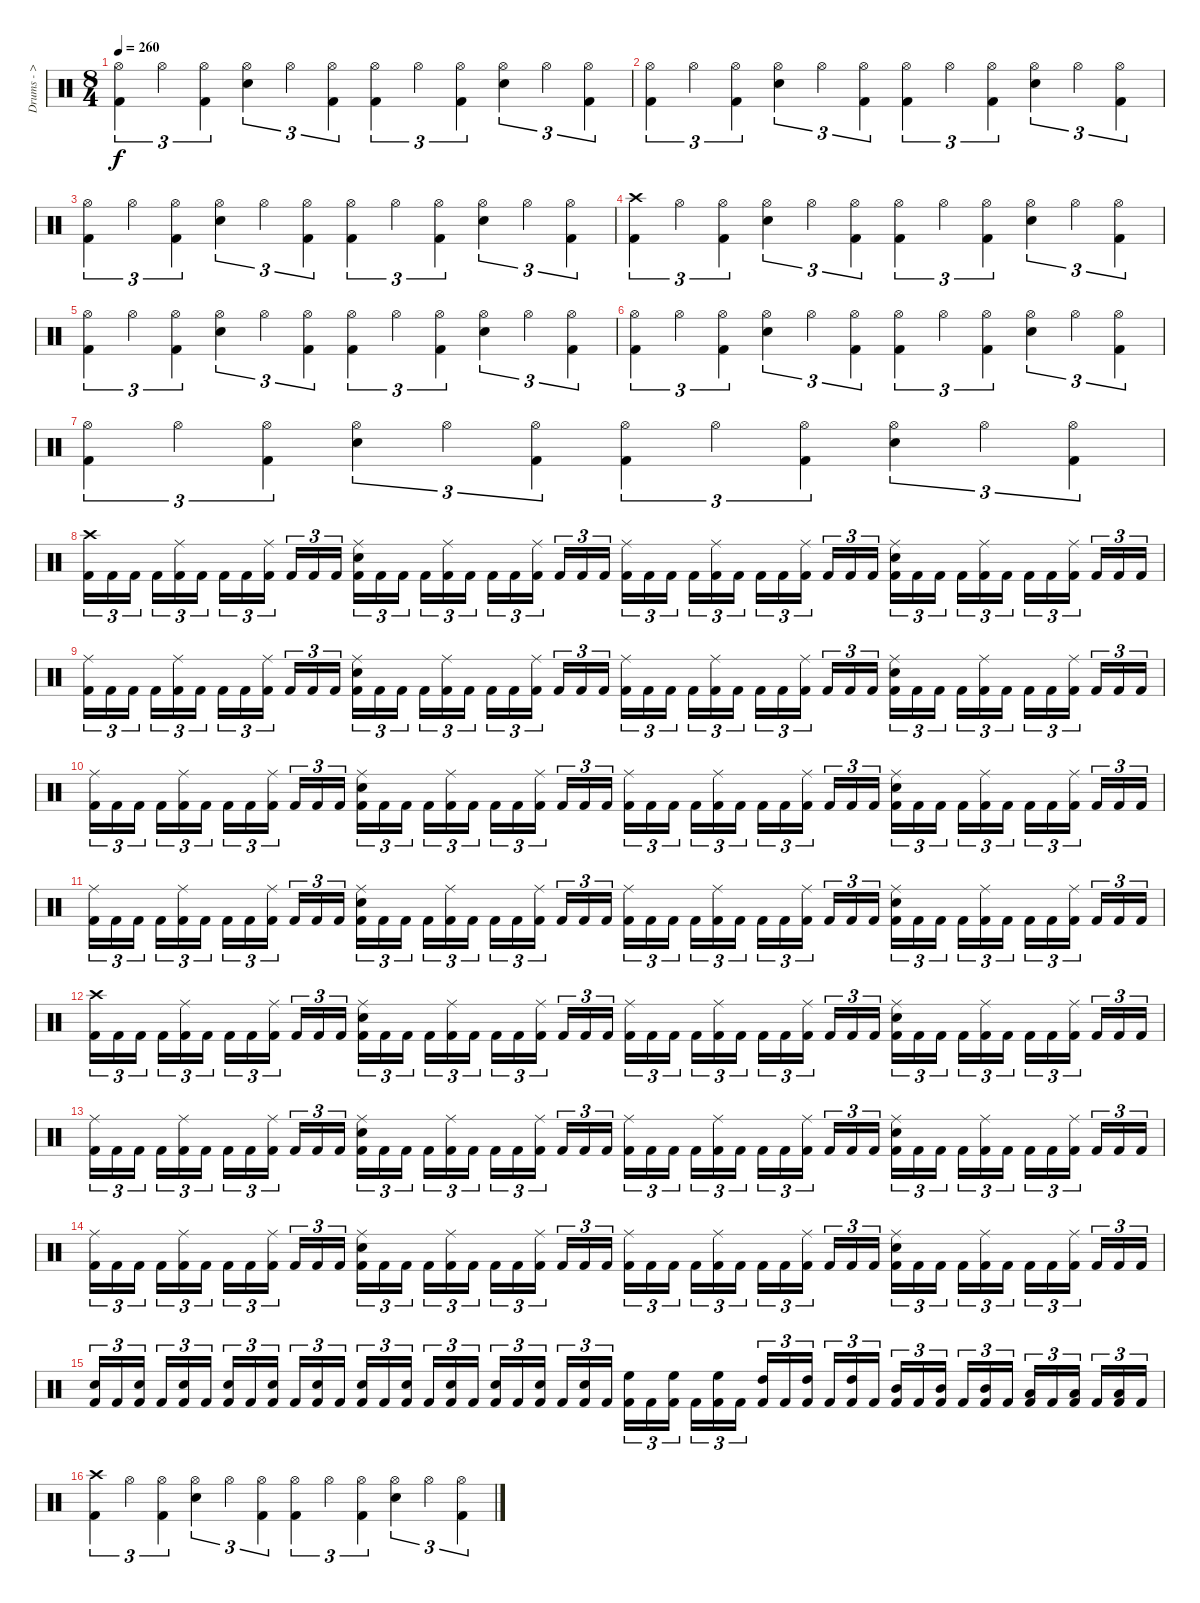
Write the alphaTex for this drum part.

\track ("Drums - > Nicholas" "Drums - > ") {instrument percussion}
\staff {score}
\articulation defaults
\ts (8 4)
\tempo 260
\clef neutral
\ks c
("Kick (hit) 2" "Hi-Hat (open)").4{tu (3 2) dy f} "Hi-Hat (open)".4{tu (3 2)} ("Kick (hit) 2" "Hi-Hat (open)").4{tu (3 2)} ("Snare (hit) 2" "Hi-Hat (open)").4{tu (3 2)} "Hi-Hat (open)".4{tu (3 2)} ("Kick (hit) 2" "Hi-Hat (open)").4{tu (3 2)} ("Kick (hit) 2" "Hi-Hat (open)").4{tu (3 2)} "Hi-Hat (open)".4{tu (3 2)} ("Kick (hit) 2" "Hi-Hat (open)").4{tu (3 2)} ("Snare (hit) 2" "Hi-Hat (open)").4{tu (3 2)} "Hi-Hat (open)".4{tu (3 2)} ("Kick (hit) 2" "Hi-Hat (open)").4{tu (3 2)} |
("Kick (hit) 2" "Hi-Hat (open)").4{tu (3 2)} "Hi-Hat (open)".4{tu (3 2)} ("Kick (hit) 2" "Hi-Hat (open)").4{tu (3 2)} ("Snare (hit) 2" "Hi-Hat (open)").4{tu (3 2)} "Hi-Hat (open)".4{tu (3 2)} ("Kick (hit) 2" "Hi-Hat (open)").4{tu (3 2)} ("Kick (hit) 2" "Hi-Hat (open)").4{tu (3 2)} "Hi-Hat (open)".4{tu (3 2)} ("Kick (hit) 2" "Hi-Hat (open)").4{tu (3 2)} ("Snare (hit) 2" "Hi-Hat (open)").4{tu (3 2)} "Hi-Hat (open)".4{tu (3 2)} ("Kick (hit) 2" "Hi-Hat (open)").4{tu (3 2)} |
("Kick (hit) 2" "Hi-Hat (open)").4{tu (3 2)} "Hi-Hat (open)".4{tu (3 2)} ("Kick (hit) 2" "Hi-Hat (open)").4{tu (3 2)} ("Snare (hit) 2" "Hi-Hat (open)").4{tu (3 2)} "Hi-Hat (open)".4{tu (3 2)} ("Kick (hit) 2" "Hi-Hat (open)").4{tu (3 2)} ("Kick (hit) 2" "Hi-Hat (open)").4{tu (3 2)} "Hi-Hat (open)".4{tu (3 2)} ("Kick (hit) 2" "Hi-Hat (open)").4{tu (3 2)} ("Snare (hit) 2" "Hi-Hat (open)").4{tu (3 2)} "Hi-Hat (open)".4{tu (3 2)} ("Kick (hit) 2" "Hi-Hat (open)").4{tu (3 2)} |
("Kick (hit) 2" "Crash high (hit)").4{tu (3 2)} "Hi-Hat (open)".4{tu (3 2)} ("Kick (hit) 2" "Hi-Hat (open)").4{tu (3 2)} ("Snare (hit) 2" "Hi-Hat (open)").4{tu (3 2)} "Hi-Hat (open)".4{tu (3 2)} ("Kick (hit) 2" "Hi-Hat (open)").4{tu (3 2)} ("Kick (hit) 2" "Hi-Hat (open)").4{tu (3 2)} "Hi-Hat (open)".4{tu (3 2)} ("Kick (hit) 2" "Hi-Hat (open)").4{tu (3 2)} ("Snare (hit) 2" "Hi-Hat (open)").4{tu (3 2)} "Hi-Hat (open)".4{tu (3 2)} ("Kick (hit) 2" "Hi-Hat (open)").4{tu (3 2)} |
("Kick (hit) 2" "Hi-Hat (open)").4{tu (3 2)} "Hi-Hat (open)".4{tu (3 2)} ("Kick (hit) 2" "Hi-Hat (open)").4{tu (3 2)} ("Snare (hit) 2" "Hi-Hat (open)").4{tu (3 2)} "Hi-Hat (open)".4{tu (3 2)} ("Kick (hit) 2" "Hi-Hat (open)").4{tu (3 2)} ("Kick (hit) 2" "Hi-Hat (open)").4{tu (3 2)} "Hi-Hat (open)".4{tu (3 2)} ("Kick (hit) 2" "Hi-Hat (open)").4{tu (3 2)} ("Snare (hit) 2" "Hi-Hat (open)").4{tu (3 2)} "Hi-Hat (open)".4{tu (3 2)} ("Kick (hit) 2" "Hi-Hat (open)").4{tu (3 2)} |
("Kick (hit) 2" "Hi-Hat (open)").4{tu (3 2)} "Hi-Hat (open)".4{tu (3 2)} ("Kick (hit) 2" "Hi-Hat (open)").4{tu (3 2)} ("Snare (hit) 2" "Hi-Hat (open)").4{tu (3 2)} "Hi-Hat (open)".4{tu (3 2)} ("Kick (hit) 2" "Hi-Hat (open)").4{tu (3 2)} ("Kick (hit) 2" "Hi-Hat (open)").4{tu (3 2)} "Hi-Hat (open)".4{tu (3 2)} ("Kick (hit) 2" "Hi-Hat (open)").4{tu (3 2)} ("Snare (hit) 2" "Hi-Hat (open)").4{tu (3 2)} "Hi-Hat (open)".4{tu (3 2)} ("Kick (hit) 2" "Hi-Hat (open)").4{tu (3 2)} |
("Kick (hit) 2" "Hi-Hat (open)").4{tu (3 2)} "Hi-Hat (open)".4{tu (3 2)} ("Kick (hit) 2" "Hi-Hat (open)").4{tu (3 2)} ("Snare (hit) 2" "Hi-Hat (open)").4{tu (3 2)} "Hi-Hat (open)".4{tu (3 2)} ("Kick (hit) 2" "Hi-Hat (open)").4{tu (3 2)} ("Kick (hit) 2" "Hi-Hat (open)").4{tu (3 2)} "Hi-Hat (open)".4{tu (3 2)} ("Kick (hit) 2" "Hi-Hat (open)").4{tu (3 2)} ("Snare (hit) 2" "Hi-Hat (open)").4{tu (3 2)} "Hi-Hat (open)".4{tu (3 2)} ("Kick (hit) 2" "Hi-Hat (open)").4{tu (3 2)} |
("Kick (hit) 2" "Crash high (hit)").16{tu (3 2)} "Kick (hit) 2".16{tu (3 2)} "Kick (hit) 2".16{tu (3 2)} "Kick (hit) 2".16{tu (3 2)} ("Kick (hit) 2" "Ride (middle)").16{tu (3 2)} "Kick (hit) 2".16{tu (3 2)} "Kick (hit) 2".16{tu (3 2)} "Kick (hit) 2".16{tu (3 2)} ("Kick (hit) 2" "Ride (middle)").16{tu (3 2)} "Kick (hit) 2".16{tu (3 2)} "Kick (hit) 2".16{tu (3 2)} "Kick (hit) 2".16{tu (3 2)} ("Kick (hit) 2" "Snare (hit) 2" "Ride (middle)").16{tu (3 2)} "Kick (hit) 2".16{tu (3 2)} "Kick (hit) 2".16{tu (3 2)} "Kick (hit) 2".16{tu (3 2)} ("Kick (hit) 2" "Ride (middle)").16{tu (3 2)} "Kick (hit) 2".16{tu (3 2)} "Kick (hit) 2".16{tu (3 2)} "Kick (hit) 2".16{tu (3 2)} ("Kick (hit) 2" "Ride (middle)").16{tu (3 2)} "Kick (hit) 2".16{tu (3 2)} "Kick (hit) 2".16{tu (3 2)} "Kick (hit) 2".16{tu (3 2)} ("Kick (hit) 2" "Ride (middle)").16{tu (3 2)} "Kick (hit) 2".16{tu (3 2)} "Kick (hit) 2".16{tu (3 2)} "Kick (hit) 2".16{tu (3 2)} ("Kick (hit) 2" "Ride (middle)").16{tu (3 2)} "Kick (hit) 2".16{tu (3 2)} "Kick (hit) 2".16{tu (3 2)} "Kick (hit) 2".16{tu (3 2)} ("Kick (hit) 2" "Ride (middle)").16{tu (3 2)} "Kick (hit) 2".16{tu (3 2)} "Kick (hit) 2".16{tu (3 2)} "Kick (hit) 2".16{tu (3 2)} ("Kick (hit) 2" "Snare (hit) 2" "Ride (middle)").16{tu (3 2)} "Kick (hit) 2".16{tu (3 2)} "Kick (hit) 2".16{tu (3 2)} "Kick (hit) 2".16{tu (3 2)} ("Kick (hit) 2" "Ride (middle)").16{tu (3 2)} "Kick (hit) 2".16{tu (3 2)} "Kick (hit) 2".16{tu (3 2)} "Kick (hit) 2".16{tu (3 2)} ("Kick (hit) 2" "Ride (middle)").16{tu (3 2)} "Kick (hit) 2".16{tu (3 2)} "Kick (hit) 2".16{tu (3 2)} "Kick (hit) 2".16{tu (3 2)} |
("Kick (hit) 2" "Ride (middle)").16{tu (3 2)} "Kick (hit) 2".16{tu (3 2)} "Kick (hit) 2".16{tu (3 2)} "Kick (hit) 2".16{tu (3 2)} ("Kick (hit) 2" "Ride (middle)").16{tu (3 2)} "Kick (hit) 2".16{tu (3 2)} "Kick (hit) 2".16{tu (3 2)} "Kick (hit) 2".16{tu (3 2)} ("Kick (hit) 2" "Ride (middle)").16{tu (3 2)} "Kick (hit) 2".16{tu (3 2)} "Kick (hit) 2".16{tu (3 2)} "Kick (hit) 2".16{tu (3 2)} ("Kick (hit) 2" "Snare (hit) 2" "Ride (middle)").16{tu (3 2)} "Kick (hit) 2".16{tu (3 2)} "Kick (hit) 2".16{tu (3 2)} "Kick (hit) 2".16{tu (3 2)} ("Kick (hit) 2" "Ride (middle)").16{tu (3 2)} "Kick (hit) 2".16{tu (3 2)} "Kick (hit) 2".16{tu (3 2)} "Kick (hit) 2".16{tu (3 2)} ("Kick (hit) 2" "Ride (middle)").16{tu (3 2)} "Kick (hit) 2".16{tu (3 2)} "Kick (hit) 2".16{tu (3 2)} "Kick (hit) 2".16{tu (3 2)} ("Kick (hit) 2" "Ride (middle)").16{tu (3 2)} "Kick (hit) 2".16{tu (3 2)} "Kick (hit) 2".16{tu (3 2)} "Kick (hit) 2".16{tu (3 2)} ("Kick (hit) 2" "Ride (middle)").16{tu (3 2)} "Kick (hit) 2".16{tu (3 2)} "Kick (hit) 2".16{tu (3 2)} "Kick (hit) 2".16{tu (3 2)} ("Kick (hit) 2" "Ride (middle)").16{tu (3 2)} "Kick (hit) 2".16{tu (3 2)} "Kick (hit) 2".16{tu (3 2)} "Kick (hit) 2".16{tu (3 2)} ("Kick (hit) 2" "Snare (hit) 2" "Ride (middle)").16{tu (3 2)} "Kick (hit) 2".16{tu (3 2)} "Kick (hit) 2".16{tu (3 2)} "Kick (hit) 2".16{tu (3 2)} ("Kick (hit) 2" "Ride (middle)").16{tu (3 2)} "Kick (hit) 2".16{tu (3 2)} "Kick (hit) 2".16{tu (3 2)} "Kick (hit) 2".16{tu (3 2)} ("Kick (hit) 2" "Ride (middle)").16{tu (3 2)} "Kick (hit) 2".16{tu (3 2)} "Kick (hit) 2".16{tu (3 2)} "Kick (hit) 2".16{tu (3 2)} |
("Kick (hit) 2" "Ride (middle)").16{tu (3 2)} "Kick (hit) 2".16{tu (3 2)} "Kick (hit) 2".16{tu (3 2)} "Kick (hit) 2".16{tu (3 2)} ("Kick (hit) 2" "Ride (middle)").16{tu (3 2)} "Kick (hit) 2".16{tu (3 2)} "Kick (hit) 2".16{tu (3 2)} "Kick (hit) 2".16{tu (3 2)} ("Kick (hit) 2" "Ride (middle)").16{tu (3 2)} "Kick (hit) 2".16{tu (3 2)} "Kick (hit) 2".16{tu (3 2)} "Kick (hit) 2".16{tu (3 2)} ("Kick (hit) 2" "Snare (hit) 2" "Ride (middle)").16{tu (3 2)} "Kick (hit) 2".16{tu (3 2)} "Kick (hit) 2".16{tu (3 2)} "Kick (hit) 2".16{tu (3 2)} ("Kick (hit) 2" "Ride (middle)").16{tu (3 2)} "Kick (hit) 2".16{tu (3 2)} "Kick (hit) 2".16{tu (3 2)} "Kick (hit) 2".16{tu (3 2)} ("Kick (hit) 2" "Ride (middle)").16{tu (3 2)} "Kick (hit) 2".16{tu (3 2)} "Kick (hit) 2".16{tu (3 2)} "Kick (hit) 2".16{tu (3 2)} ("Kick (hit) 2" "Ride (middle)").16{tu (3 2)} "Kick (hit) 2".16{tu (3 2)} "Kick (hit) 2".16{tu (3 2)} "Kick (hit) 2".16{tu (3 2)} ("Kick (hit) 2" "Ride (middle)").16{tu (3 2)} "Kick (hit) 2".16{tu (3 2)} "Kick (hit) 2".16{tu (3 2)} "Kick (hit) 2".16{tu (3 2)} ("Kick (hit) 2" "Ride (middle)").16{tu (3 2)} "Kick (hit) 2".16{tu (3 2)} "Kick (hit) 2".16{tu (3 2)} "Kick (hit) 2".16{tu (3 2)} ("Kick (hit) 2" "Snare (hit) 2" "Ride (middle)").16{tu (3 2)} "Kick (hit) 2".16{tu (3 2)} "Kick (hit) 2".16{tu (3 2)} "Kick (hit) 2".16{tu (3 2)} ("Kick (hit) 2" "Ride (middle)").16{tu (3 2)} "Kick (hit) 2".16{tu (3 2)} "Kick (hit) 2".16{tu (3 2)} "Kick (hit) 2".16{tu (3 2)} ("Kick (hit) 2" "Ride (middle)").16{tu (3 2)} "Kick (hit) 2".16{tu (3 2)} "Kick (hit) 2".16{tu (3 2)} "Kick (hit) 2".16{tu (3 2)} |
("Kick (hit) 2" "Ride (middle)").16{tu (3 2)} "Kick (hit) 2".16{tu (3 2)} "Kick (hit) 2".16{tu (3 2)} "Kick (hit) 2".16{tu (3 2)} ("Kick (hit) 2" "Ride (middle)").16{tu (3 2)} "Kick (hit) 2".16{tu (3 2)} "Kick (hit) 2".16{tu (3 2)} "Kick (hit) 2".16{tu (3 2)} ("Kick (hit) 2" "Ride (middle)").16{tu (3 2)} "Kick (hit) 2".16{tu (3 2)} "Kick (hit) 2".16{tu (3 2)} "Kick (hit) 2".16{tu (3 2)} ("Kick (hit) 2" "Snare (hit) 2" "Ride (middle)").16{tu (3 2)} "Kick (hit) 2".16{tu (3 2)} "Kick (hit) 2".16{tu (3 2)} "Kick (hit) 2".16{tu (3 2)} ("Kick (hit) 2" "Ride (middle)").16{tu (3 2)} "Kick (hit) 2".16{tu (3 2)} "Kick (hit) 2".16{tu (3 2)} "Kick (hit) 2".16{tu (3 2)} ("Kick (hit) 2" "Ride (middle)").16{tu (3 2)} "Kick (hit) 2".16{tu (3 2)} "Kick (hit) 2".16{tu (3 2)} "Kick (hit) 2".16{tu (3 2)} ("Kick (hit) 2" "Ride (middle)").16{tu (3 2)} "Kick (hit) 2".16{tu (3 2)} "Kick (hit) 2".16{tu (3 2)} "Kick (hit) 2".16{tu (3 2)} ("Kick (hit) 2" "Ride (middle)").16{tu (3 2)} "Kick (hit) 2".16{tu (3 2)} "Kick (hit) 2".16{tu (3 2)} "Kick (hit) 2".16{tu (3 2)} ("Kick (hit) 2" "Ride (middle)").16{tu (3 2)} "Kick (hit) 2".16{tu (3 2)} "Kick (hit) 2".16{tu (3 2)} "Kick (hit) 2".16{tu (3 2)} ("Kick (hit) 2" "Snare (hit) 2" "Ride (middle)").16{tu (3 2)} "Kick (hit) 2".16{tu (3 2)} "Kick (hit) 2".16{tu (3 2)} "Kick (hit) 2".16{tu (3 2)} ("Kick (hit) 2" "Ride (middle)").16{tu (3 2)} "Kick (hit) 2".16{tu (3 2)} "Kick (hit) 2".16{tu (3 2)} "Kick (hit) 2".16{tu (3 2)} ("Kick (hit) 2" "Ride (middle)").16{tu (3 2)} "Kick (hit) 2".16{tu (3 2)} "Kick (hit) 2".16{tu (3 2)} "Kick (hit) 2".16{tu (3 2)} |
("Kick (hit) 2" "Crash high (hit)").16{tu (3 2)} "Kick (hit) 2".16{tu (3 2)} "Kick (hit) 2".16{tu (3 2)} "Kick (hit) 2".16{tu (3 2)} ("Kick (hit) 2" "Ride (middle)").16{tu (3 2)} "Kick (hit) 2".16{tu (3 2)} "Kick (hit) 2".16{tu (3 2)} "Kick (hit) 2".16{tu (3 2)} ("Kick (hit) 2" "Ride (middle)").16{tu (3 2)} "Kick (hit) 2".16{tu (3 2)} "Kick (hit) 2".16{tu (3 2)} "Kick (hit) 2".16{tu (3 2)} ("Kick (hit) 2" "Snare (hit) 2" "Ride (middle)").16{tu (3 2)} "Kick (hit) 2".16{tu (3 2)} "Kick (hit) 2".16{tu (3 2)} "Kick (hit) 2".16{tu (3 2)} ("Kick (hit) 2" "Ride (middle)").16{tu (3 2)} "Kick (hit) 2".16{tu (3 2)} "Kick (hit) 2".16{tu (3 2)} "Kick (hit) 2".16{tu (3 2)} ("Kick (hit) 2" "Ride (middle)").16{tu (3 2)} "Kick (hit) 2".16{tu (3 2)} "Kick (hit) 2".16{tu (3 2)} "Kick (hit) 2".16{tu (3 2)} ("Kick (hit) 2" "Ride (middle)").16{tu (3 2)} "Kick (hit) 2".16{tu (3 2)} "Kick (hit) 2".16{tu (3 2)} "Kick (hit) 2".16{tu (3 2)} ("Kick (hit) 2" "Ride (middle)").16{tu (3 2)} "Kick (hit) 2".16{tu (3 2)} "Kick (hit) 2".16{tu (3 2)} "Kick (hit) 2".16{tu (3 2)} ("Kick (hit) 2" "Ride (middle)").16{tu (3 2)} "Kick (hit) 2".16{tu (3 2)} "Kick (hit) 2".16{tu (3 2)} "Kick (hit) 2".16{tu (3 2)} ("Kick (hit) 2" "Snare (hit) 2" "Ride (middle)").16{tu (3 2)} "Kick (hit) 2".16{tu (3 2)} "Kick (hit) 2".16{tu (3 2)} "Kick (hit) 2".16{tu (3 2)} ("Kick (hit) 2" "Ride (middle)").16{tu (3 2)} "Kick (hit) 2".16{tu (3 2)} "Kick (hit) 2".16{tu (3 2)} "Kick (hit) 2".16{tu (3 2)} ("Kick (hit) 2" "Ride (middle)").16{tu (3 2)} "Kick (hit) 2".16{tu (3 2)} "Kick (hit) 2".16{tu (3 2)} "Kick (hit) 2".16{tu (3 2)} |
("Kick (hit) 2" "Ride (middle)").16{tu (3 2)} "Kick (hit) 2".16{tu (3 2)} "Kick (hit) 2".16{tu (3 2)} "Kick (hit) 2".16{tu (3 2)} ("Kick (hit) 2" "Ride (middle)").16{tu (3 2)} "Kick (hit) 2".16{tu (3 2)} "Kick (hit) 2".16{tu (3 2)} "Kick (hit) 2".16{tu (3 2)} ("Kick (hit) 2" "Ride (middle)").16{tu (3 2)} "Kick (hit) 2".16{tu (3 2)} "Kick (hit) 2".16{tu (3 2)} "Kick (hit) 2".16{tu (3 2)} ("Kick (hit) 2" "Snare (hit) 2" "Ride (middle)").16{tu (3 2)} "Kick (hit) 2".16{tu (3 2)} "Kick (hit) 2".16{tu (3 2)} "Kick (hit) 2".16{tu (3 2)} ("Kick (hit) 2" "Ride (middle)").16{tu (3 2)} "Kick (hit) 2".16{tu (3 2)} "Kick (hit) 2".16{tu (3 2)} "Kick (hit) 2".16{tu (3 2)} ("Kick (hit) 2" "Ride (middle)").16{tu (3 2)} "Kick (hit) 2".16{tu (3 2)} "Kick (hit) 2".16{tu (3 2)} "Kick (hit) 2".16{tu (3 2)} ("Kick (hit) 2" "Ride (middle)").16{tu (3 2)} "Kick (hit) 2".16{tu (3 2)} "Kick (hit) 2".16{tu (3 2)} "Kick (hit) 2".16{tu (3 2)} ("Kick (hit) 2" "Ride (middle)").16{tu (3 2)} "Kick (hit) 2".16{tu (3 2)} "Kick (hit) 2".16{tu (3 2)} "Kick (hit) 2".16{tu (3 2)} ("Kick (hit) 2" "Ride (middle)").16{tu (3 2)} "Kick (hit) 2".16{tu (3 2)} "Kick (hit) 2".16{tu (3 2)} "Kick (hit) 2".16{tu (3 2)} ("Kick (hit) 2" "Snare (hit) 2" "Ride (middle)").16{tu (3 2)} "Kick (hit) 2".16{tu (3 2)} "Kick (hit) 2".16{tu (3 2)} "Kick (hit) 2".16{tu (3 2)} ("Kick (hit) 2" "Ride (middle)").16{tu (3 2)} "Kick (hit) 2".16{tu (3 2)} "Kick (hit) 2".16{tu (3 2)} "Kick (hit) 2".16{tu (3 2)} ("Kick (hit) 2" "Ride (middle)").16{tu (3 2)} "Kick (hit) 2".16{tu (3 2)} "Kick (hit) 2".16{tu (3 2)} "Kick (hit) 2".16{tu (3 2)} |
("Kick (hit) 2" "Ride (middle)").16{tu (3 2)} "Kick (hit) 2".16{tu (3 2)} "Kick (hit) 2".16{tu (3 2)} "Kick (hit) 2".16{tu (3 2)} ("Kick (hit) 2" "Ride (middle)").16{tu (3 2)} "Kick (hit) 2".16{tu (3 2)} "Kick (hit) 2".16{tu (3 2)} "Kick (hit) 2".16{tu (3 2)} ("Kick (hit) 2" "Ride (middle)").16{tu (3 2)} "Kick (hit) 2".16{tu (3 2)} "Kick (hit) 2".16{tu (3 2)} "Kick (hit) 2".16{tu (3 2)} ("Kick (hit) 2" "Snare (hit) 2" "Ride (middle)").16{tu (3 2)} "Kick (hit) 2".16{tu (3 2)} "Kick (hit) 2".16{tu (3 2)} "Kick (hit) 2".16{tu (3 2)} ("Kick (hit) 2" "Ride (middle)").16{tu (3 2)} "Kick (hit) 2".16{tu (3 2)} "Kick (hit) 2".16{tu (3 2)} "Kick (hit) 2".16{tu (3 2)} ("Kick (hit) 2" "Ride (middle)").16{tu (3 2)} "Kick (hit) 2".16{tu (3 2)} "Kick (hit) 2".16{tu (3 2)} "Kick (hit) 2".16{tu (3 2)} ("Kick (hit) 2" "Ride (middle)").16{tu (3 2)} "Kick (hit) 2".16{tu (3 2)} "Kick (hit) 2".16{tu (3 2)} "Kick (hit) 2".16{tu (3 2)} ("Kick (hit) 2" "Ride (middle)").16{tu (3 2)} "Kick (hit) 2".16{tu (3 2)} "Kick (hit) 2".16{tu (3 2)} "Kick (hit) 2".16{tu (3 2)} ("Kick (hit) 2" "Ride (middle)").16{tu (3 2)} "Kick (hit) 2".16{tu (3 2)} "Kick (hit) 2".16{tu (3 2)} "Kick (hit) 2".16{tu (3 2)} ("Kick (hit) 2" "Snare (hit) 2" "Ride (middle)").16{tu (3 2)} "Kick (hit) 2".16{tu (3 2)} "Kick (hit) 2".16{tu (3 2)} "Kick (hit) 2".16{tu (3 2)} ("Kick (hit) 2" "Ride (middle)").16{tu (3 2)} "Kick (hit) 2".16{tu (3 2)} "Kick (hit) 2".16{tu (3 2)} "Kick (hit) 2".16{tu (3 2)} ("Kick (hit) 2" "Ride (middle)").16{tu (3 2)} "Kick (hit) 2".16{tu (3 2)} "Kick (hit) 2".16{tu (3 2)} "Kick (hit) 2".16{tu (3 2)} |
("Kick (hit) 2" "Snare (hit) 2").16{tu (3 2)} "Kick (hit) 2".16{tu (3 2)} ("Kick (hit) 2" "Snare (hit) 2").16{tu (3 2)} "Kick (hit) 2".16{tu (3 2)} ("Kick (hit) 2" "Snare (hit) 2").16{tu (3 2)} "Kick (hit) 2".16{tu (3 2)} ("Kick (hit) 2" "Snare (hit) 2").16{tu (3 2)} "Kick (hit) 2".16{tu (3 2)} ("Kick (hit) 2" "Snare (hit) 2").16{tu (3 2)} "Kick (hit) 2".16{tu (3 2)} ("Kick (hit) 2" "Snare (hit) 2").16{tu (3 2)} "Kick (hit) 2".16{tu (3 2)} ("Kick (hit) 2" "Snare (hit) 2").16{tu (3 2)} "Kick (hit) 2".16{tu (3 2)} ("Kick (hit) 2" "Snare (hit) 2").16{tu (3 2)} "Kick (hit) 2".16{tu (3 2)} ("Kick (hit) 2" "Snare (hit) 2").16{tu (3 2)} "Kick (hit) 2".16{tu (3 2)} ("Kick (hit) 2" "Snare (hit) 2").16{tu (3 2)} "Kick (hit) 2".16{tu (3 2)} ("Kick (hit) 2" "Snare (hit) 2").16{tu (3 2)} "Kick (hit) 2".16{tu (3 2)} ("Kick (hit) 2" "Snare (hit) 2").16{tu (3 2)} "Kick (hit) 2".16{tu (3 2)} ("Kick (hit) 2" "High Floor Tom (hit)").16{tu (3 2)} "Kick (hit) 2".16{tu (3 2)} ("Kick (hit) 2" "High Floor Tom (hit)").16{tu (3 2)} "Kick (hit) 2".16{tu (3 2)} ("Kick (hit) 2" "High Floor Tom (hit)").16{tu (3 2)} "Kick (hit) 2".16{tu (3 2)} ("Kick (hit) 2" "High Tom (hit)").16{tu (3 2)} "Kick (hit) 2".16{tu (3 2)} ("Kick (hit) 2" "High Tom (hit)").16{tu (3 2)} "Kick (hit) 2".16{tu (3 2)} ("Kick (hit) 2" "High Tom (hit)").16{tu (3 2)} "Kick (hit) 2".16{tu (3 2)} ("Kick (hit) 2" "Mid Tom (hit)").16{tu (3 2)} "Kick (hit) 2".16{tu (3 2)} ("Kick (hit) 2" "Mid Tom (hit)").16{tu (3 2)} "Kick (hit) 2".16{tu (3 2)} ("Kick (hit) 2" "Mid Tom (hit)").16{tu (3 2)} "Kick (hit) 2".16{tu (3 2)} ("Kick (hit) 2" "Low Tom (hit)").16{tu (3 2)} "Kick (hit) 2".16{tu (3 2)} ("Kick (hit) 2" "Low Tom (hit)").16{tu (3 2)} "Kick (hit) 2".16{tu (3 2)} ("Kick (hit) 2" "Low Tom (hit)").16{tu (3 2)} "Kick (hit) 2".16{tu (3 2)} |
("Kick (hit) 2" "Crash high (hit)").4{tu (3 2)} "Hi-Hat (open)".4{tu (3 2)} ("Kick (hit) 2" "Hi-Hat (open)").4{tu (3 2)} ("Snare (hit) 2" "Hi-Hat (open)").4{tu (3 2)} "Hi-Hat (open)".4{tu (3 2)} ("Kick (hit) 2" "Hi-Hat (open)").4{tu (3 2)} ("Kick (hit) 2" "Hi-Hat (open)").4{tu (3 2)} "Hi-Hat (open)".4{tu (3 2)} ("Kick (hit) 2" "Hi-Hat (open)").4{tu (3 2)} ("Snare (hit) 2" "Hi-Hat (open)").4{tu (3 2)} "Hi-Hat (open)".4{tu (3 2)} ("Kick (hit) 2" "Hi-Hat (open)").4{tu (3 2)}
